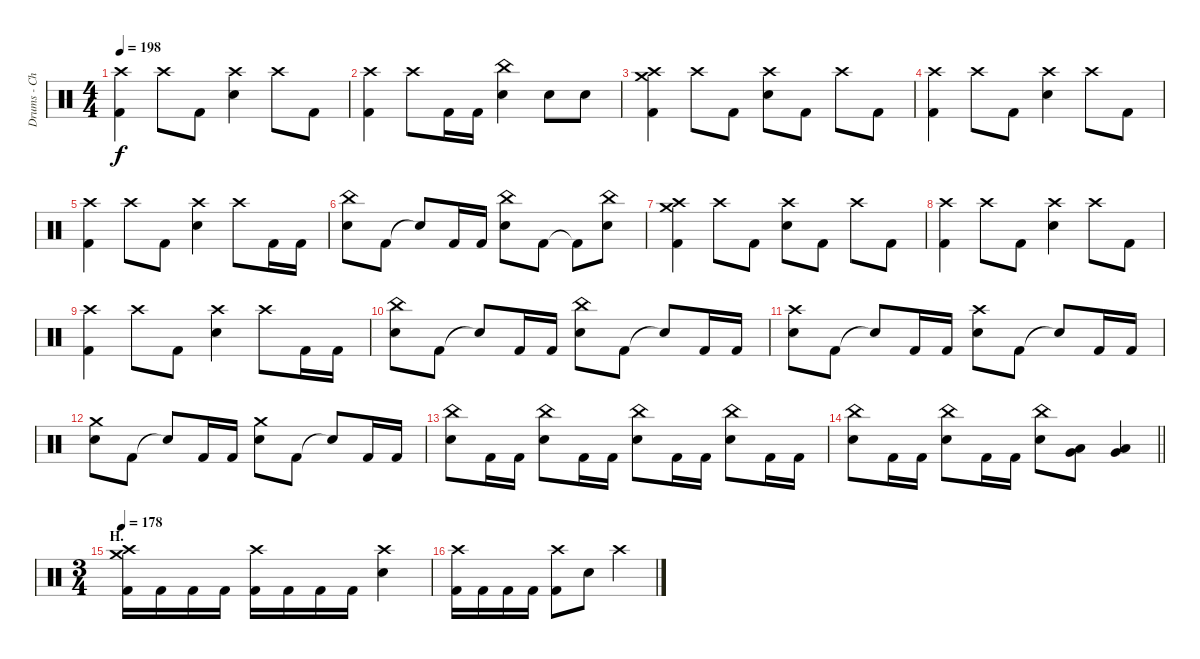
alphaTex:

\track ("Drums - Christopher Hornbrook" "Drums - Ch") {instrument percussion}
\staff {score}
\articulation defaults
\ts (4 4)
\tempo 198
\clef neutral
\ks c
("Crash high (hit)" "Kick (hit) 2").4{dy f} "Crash high (hit)".8 "Kick (hit) 2".8 ("Crash high (hit)" "Electric Snare (hit)").4 "Crash high (hit)".8 "Kick (hit) 2".8 |
("Crash high (hit)" "Kick (hit) 2").4 "Crash high (hit)".8 "Kick (hit) 2".16 "Kick (hit) 2".16 ("China (hit)" "Electric Snare (hit)").4 "Electric Snare (hit)".8 "Electric Snare (hit)".8 |
("Crash medium (hit)" "Crash high (hit)" "Kick (hit) 2").4 "Crash high (hit)".8 "Kick (hit) 2".8 ("Crash high (hit)" "Electric Snare (hit)").8 "Kick (hit) 2".8 "Crash high (hit)".8 "Kick (hit) 2".8 |
("Crash high (hit)" "Kick (hit) 2").4 "Crash high (hit)".8 "Kick (hit) 2".8 ("Crash high (hit)" "Electric Snare (hit)").4 "Crash high (hit)".8 "Kick (hit) 2".8 |
("Crash high (hit)" "Kick (hit) 2").4 "Crash high (hit)".8 "Kick (hit) 2".8 ("Crash high (hit)" "Electric Snare (hit)").4 "Crash high (hit)".8 "Kick (hit) 2".16 "Kick (hit) 2".16 |
("China (hit)" "Electric Snare (hit)").8 "Kick (hit) 2".8 "Snare (hit)"{t}.8 "Kick (hit) 2".16 "Kick (hit) 2".16 ("China (hit)" "Electric Snare (hit)").8 "Kick (hit) 2".8 "Kick (hit) 2"{t}.8 ("China (hit)" "Electric Snare (hit)").8 |
("Crash medium (hit)" "Crash high (hit)" "Kick (hit) 2").4 "Crash high (hit)".8 "Kick (hit) 2".8 ("Crash high (hit)" "Electric Snare (hit)").8 "Kick (hit) 2".8 "Crash high (hit)".8 "Kick (hit) 2".8 |
("Crash high (hit)" "Kick (hit) 2").4 "Crash high (hit)".8 "Kick (hit) 2".8 ("Crash high (hit)" "Electric Snare (hit)").4 "Crash high (hit)".8 "Kick (hit) 2".8 |
("Crash high (hit)" "Kick (hit) 2").4 "Crash high (hit)".8 "Kick (hit) 2".8 ("Crash high (hit)" "Electric Snare (hit)").4 "Crash high (hit)".8 "Kick (hit) 2".16 "Kick (hit) 2".16 |
("China (hit)" "Electric Snare (hit)").8 "Kick (hit) 2".8 "Snare (hit)"{t}.8 "Kick (hit) 2".16 "Kick (hit) 2".16 ("China (hit)" "Electric Snare (hit)").8 "Kick (hit) 2".8 "Snare (hit)"{t}.8 "Kick (hit) 2".16 "Kick (hit) 2".16 |
("Crash high (hit)" "Electric Snare (hit)").8 "Kick (hit) 2".8 "Snare (hit)"{t}.8 "Kick (hit) 2".16 "Kick (hit) 2".16 ("Crash high (hit)" "Electric Snare (hit)").8 "Kick (hit) 2".8 "Snare (hit)"{t}.8 "Kick (hit) 2".16 "Kick (hit) 2".16 |
("Crash medium (hit)" "Electric Snare (hit)").8 "Kick (hit) 2".8 "Snare (hit)"{t}.8 "Kick (hit) 2".16 "Kick (hit) 2".16 ("Crash medium (hit)" "Electric Snare (hit)").8 "Kick (hit) 2".8 "Snare (hit)"{t}.8 "Kick (hit) 2".16 "Kick (hit) 2".16 |
("China (hit)" "Electric Snare (hit)").8 "Kick (hit) 2".16 "Kick (hit) 2".16 ("China (hit)" "Electric Snare (hit)").8 "Kick (hit) 2".16 "Kick (hit) 2".16 ("China (hit)" "Electric Snare (hit)").8 "Kick (hit) 2".16 "Kick (hit) 2".16 ("China (hit)" "Electric Snare (hit)").8 "Kick (hit) 2".16 "Kick (hit) 2".16 |
\barLineRight lightlight
("China (hit)" "Electric Snare (hit)").8 "Kick (hit) 2".16 "Kick (hit) 2".16 ("China (hit)" "Electric Snare (hit)").8 "Kick (hit) 2".16 "Kick (hit) 2".16 ("China (hit)" "Electric Snare (hit)").8 ("Low Tom (hit)" "Very Low Tom (hit)").8{bu 120} ("Low Tom (hit)" "Very Low Tom (hit)").4{bu 120} |
\ts (3 4)
\section ("" "H.")
\tempo 178
("Crash medium (hit)" "Crash high (hit)" "Kick (hit) 2").16 "Kick (hit) 2".16 "Kick (hit) 2".16 "Kick (hit) 2".16 ("Crash high (hit)" "Kick (hit) 2").16 "Kick (hit) 2".16 "Kick (hit) 2".16 "Kick (hit) 2".16 ("Crash high (hit)" "Electric Snare (hit)").4 |
("Crash high (hit)" "Kick (hit) 2").16 "Kick (hit) 2".16 "Kick (hit) 2".16 "Kick (hit) 2".16 ("Crash high (hit)" "Kick (hit) 2").8 "Electric Snare (hit)".8 "Crash high (hit)".4
